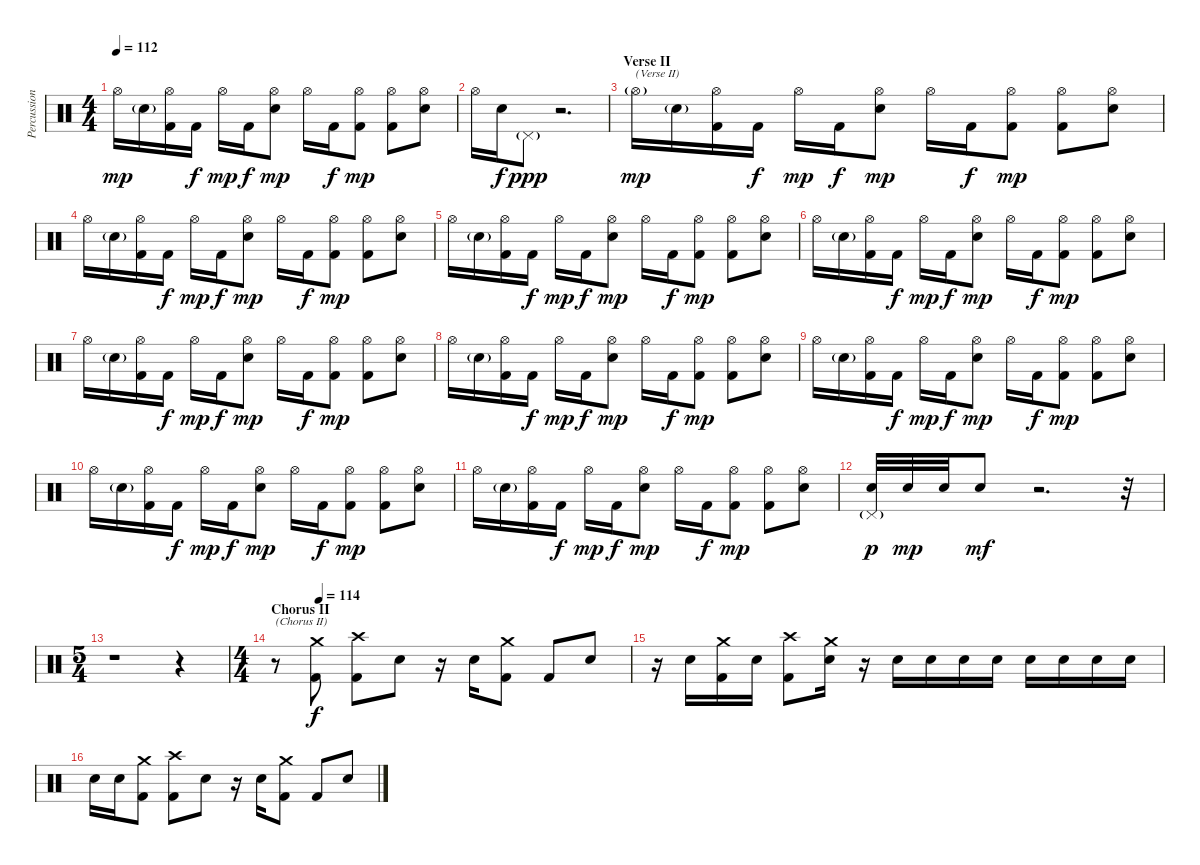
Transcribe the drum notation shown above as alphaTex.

\track ("Percussion" "Percussion") {instrument percussion}
\staff {score}
\articulation defaults
\ts (4 4)
\tempo 112
\clef neutral
\ks c "Hi-Hat (open)".16{dy mp} "Electric Snare (hit)"{g}.16
("Hi-Hat (open)" "Kick (hit) 2").16 "Kick (hit) 2".16{dy f} "Hi-Hat (open)".16{dy mp} "Kick (hit) 2".16{dy f} ("Hi-Hat (open)" "Electric Snare (hit)").8{dy mp} "Hi-Hat (open)".16 "Kick (hit) 2".16{dy f} ("Hi-Hat (open)" "Kick (hit) 2").8{dy mp} ("Hi-Hat (open)" "Kick (hit) 2").8 ("Hi-Hat (open)" "Electric Snare (hit)").8 |
"Hi-Hat (open)".16 "Electric Snare (hit)".16{dy f} "Pedal Hi-Hat (hit)"{g}.8{dy ppp} r.2{d} |
\section ("" "Verse II")
"Hi-Hat (open)"{g}.16{txt "(Verse II)" dy mp} "Electric Snare (hit)"{g}.16 ("Hi-Hat (open)" "Kick (hit) 2").16 "Kick (hit) 2".16{dy f} "Hi-Hat (open)".16{dy mp} "Kick (hit) 2".16{dy f} ("Hi-Hat (open)" "Electric Snare (hit)").8{dy mp} "Hi-Hat (open)".16 "Kick (hit) 2".16{dy f} ("Hi-Hat (open)" "Kick (hit) 2").8{dy mp} ("Hi-Hat (open)" "Kick (hit) 2").8 ("Hi-Hat (open)" "Electric Snare (hit)").8 |
"Hi-Hat (open)".16 "Electric Snare (hit)"{g}.16 ("Hi-Hat (open)" "Kick (hit) 2").16 "Kick (hit) 2".16{dy f} "Hi-Hat (open)".16{dy mp} "Kick (hit) 2".16{dy f} ("Hi-Hat (open)" "Electric Snare (hit)").8{dy mp} "Hi-Hat (open)".16 "Kick (hit) 2".16{dy f} ("Hi-Hat (open)" "Kick (hit) 2").8{dy mp} ("Hi-Hat (open)" "Kick (hit) 2").8 ("Hi-Hat (open)" "Electric Snare (hit)").8 |
"Hi-Hat (open)".16 "Electric Snare (hit)"{g}.16 ("Hi-Hat (open)" "Kick (hit) 2").16 "Kick (hit) 2".16{dy f} "Hi-Hat (open)".16{dy mp} "Kick (hit) 2".16{dy f} ("Hi-Hat (open)" "Electric Snare (hit)").8{dy mp} "Hi-Hat (open)".16 "Kick (hit) 2".16{dy f} ("Hi-Hat (open)" "Kick (hit) 2").8{dy mp} ("Hi-Hat (open)" "Kick (hit) 2").8 ("Hi-Hat (open)" "Electric Snare (hit)").8 |
"Hi-Hat (open)".16 "Electric Snare (hit)"{g}.16 ("Hi-Hat (open)" "Kick (hit) 2").16 "Kick (hit) 2".16{dy f} "Hi-Hat (open)".16{dy mp} "Kick (hit) 2".16{dy f} ("Hi-Hat (open)" "Electric Snare (hit)").8{dy mp} "Hi-Hat (open)".16 "Kick (hit) 2".16{dy f} ("Hi-Hat (open)" "Kick (hit) 2").8{dy mp} ("Hi-Hat (open)" "Kick (hit) 2").8 ("Hi-Hat (open)" "Electric Snare (hit)").8 |
"Hi-Hat (open)".16 "Electric Snare (hit)"{g}.16 ("Hi-Hat (open)" "Kick (hit) 2").16 "Kick (hit) 2".16{dy f} "Hi-Hat (open)".16{dy mp} "Kick (hit) 2".16{dy f} ("Hi-Hat (open)" "Electric Snare (hit)").8{dy mp} "Hi-Hat (open)".16 "Kick (hit) 2".16{dy f} ("Hi-Hat (open)" "Kick (hit) 2").8{dy mp} ("Hi-Hat (open)" "Kick (hit) 2").8 ("Hi-Hat (open)" "Electric Snare (hit)").8 |
"Hi-Hat (open)".16 "Electric Snare (hit)"{g}.16 ("Hi-Hat (open)" "Kick (hit) 2").16 "Kick (hit) 2".16{dy f} "Hi-Hat (open)".16{dy mp} "Kick (hit) 2".16{dy f} ("Hi-Hat (open)" "Electric Snare (hit)").8{dy mp} "Hi-Hat (open)".16 "Kick (hit) 2".16{dy f} ("Hi-Hat (open)" "Kick (hit) 2").8{dy mp} ("Hi-Hat (open)" "Kick (hit) 2").8 ("Hi-Hat (open)" "Electric Snare (hit)").8 |
"Hi-Hat (open)".16 "Electric Snare (hit)"{g}.16 ("Hi-Hat (open)" "Kick (hit) 2").16 "Kick (hit) 2".16{dy f} "Hi-Hat (open)".16{dy mp} "Kick (hit) 2".16{dy f} ("Hi-Hat (open)" "Electric Snare (hit)").8{dy mp} "Hi-Hat (open)".16 "Kick (hit) 2".16{dy f} ("Hi-Hat (open)" "Kick (hit) 2").8{dy mp} ("Hi-Hat (open)" "Kick (hit) 2").8 ("Hi-Hat (open)" "Electric Snare (hit)").8 |
"Hi-Hat (open)".16 "Electric Snare (hit)"{g}.16 ("Hi-Hat (open)" "Kick (hit) 2").16 "Kick (hit) 2".16{dy f} "Hi-Hat (open)".16{dy mp} "Kick (hit) 2".16{dy f} ("Hi-Hat (open)" "Electric Snare (hit)").8{dy mp} "Hi-Hat (open)".16 "Kick (hit) 2".16{dy f} ("Hi-Hat (open)" "Kick (hit) 2").8{dy mp} ("Hi-Hat (open)" "Kick (hit) 2").8 ("Hi-Hat (open)" "Electric Snare (hit)").8 |
"Hi-Hat (open)".16 "Electric Snare (hit)"{g}.16 ("Hi-Hat (open)" "Kick (hit) 2").16 "Kick (hit) 2".16{dy f} "Hi-Hat (open)".16{dy mp} "Kick (hit) 2".16{dy f} ("Hi-Hat (open)" "Electric Snare (hit)").8{dy mp} "Hi-Hat (open)".16 "Kick (hit) 2".16{dy f} ("Hi-Hat (open)" "Kick (hit) 2").8{dy mp} ("Hi-Hat (open)" "Kick (hit) 2").8 ("Hi-Hat (open)" "Electric Snare (hit)").8 |
("Pedal Hi-Hat (hit)"{g} "Electric Snare (hit)").32{dy p} "Electric Snare (hit)".32{dy mp} "Electric Snare (hit)".32 "Electric Snare (hit)".8{dy mf} r.2{d} r.32 |
\ts (5 4)
r.1 r.4 |
\ts (4 4)
\section ("" "Chorus II")
\tempo (114 0.125)
r.8{txt "(Chorus II)"} ("Crash medium (hit)" "Kick (hit) 2").8{dy f} ("Crash high (hit)" "Kick (hit) 2").8 "Electric Snare (hit)".8 r.16 "Electric Snare (hit)".16 ("Crash medium (hit)" "Kick (hit) 2").8 "Kick (hit) 2".8 "Electric Snare (hit)".8 |
r.16 "Electric Snare (hit)".16 ("Crash medium (hit)" "Kick (hit) 2").16 "Electric Snare (hit)".16 ("Crash high (hit)" "Kick (hit) 2").8 ("Crash medium (hit)" "Electric Snare (hit)").16 r.16 "Electric Snare (hit)".16 "Electric Snare (hit)".16 "Electric Snare (hit)".16 "Electric Snare (hit)".16 "Electric Snare (hit)".16 "Electric Snare (hit)".16 "Electric Snare (hit)".16 "Electric Snare (hit)".16 |
"Electric Snare (hit)".16 "Electric Snare (hit)".16 ("Crash medium (hit)" "Kick (hit) 2").8 ("Crash high (hit)" "Kick (hit) 2").8 "Electric Snare (hit)".8 r.16 "Electric Snare (hit)".16 ("Crash medium (hit)" "Kick (hit) 2").8 "Kick (hit) 2".8 "Electric Snare (hit)".8
